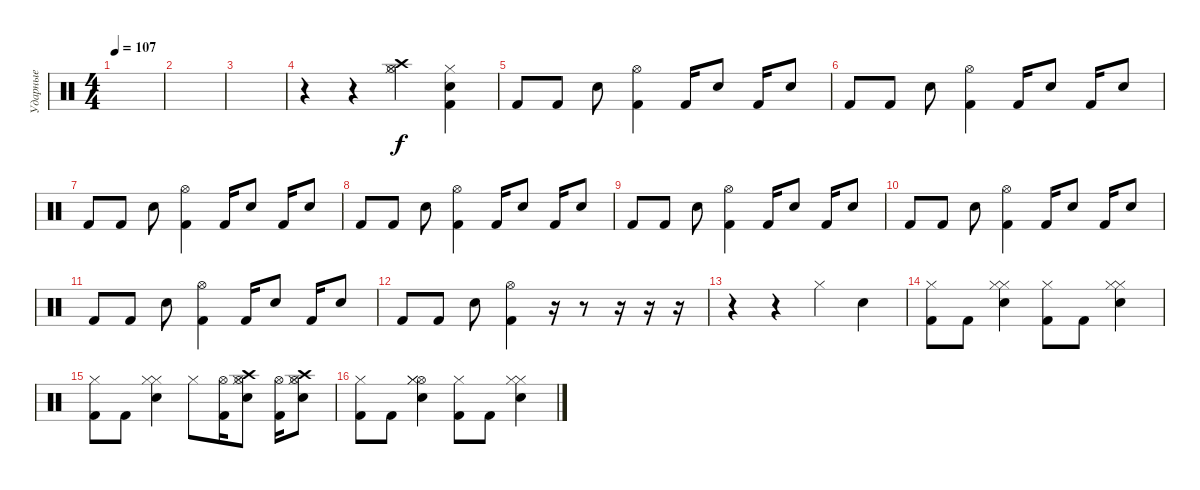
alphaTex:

\track ("Ударные" "Ударные") {instrument percussion}
\staff {score}
\articulation defaults
\ts (4 4)
\tempo 107
\clef neutral
\ks c
|
|
|
r.4 r.4 ("Hi-Hat (closed)" "Hi-Hat (open)" "Crash high (hit)").4 ("Hi-Hat (closed)" "Electric Snare (hit)" "Kick (hit) 2").4 |
"Kick (hit) 2".8 "Kick (hit) 2".8 "Electric Snare (hit)".8 ("Hi-Hat (open)" "Kick (hit) 2").4 "Kick (hit) 2".16 "Electric Snare (hit)".8 "Kick (hit) 2".16 "Electric Snare (hit)".8 |
"Kick (hit) 2".8 "Kick (hit) 2".8 "Electric Snare (hit)".8 ("Hi-Hat (open)" "Kick (hit) 2").4 "Kick (hit) 2".16 "Electric Snare (hit)".8 "Kick (hit) 2".16 "Electric Snare (hit)".8 |
"Kick (hit) 2".8 "Kick (hit) 2".8 "Electric Snare (hit)".8 ("Hi-Hat (open)" "Kick (hit) 2").4 "Kick (hit) 2".16 "Electric Snare (hit)".8 "Kick (hit) 2".16 "Electric Snare (hit)".8 |
"Kick (hit) 2".8 "Kick (hit) 2".8 "Electric Snare (hit)".8 ("Hi-Hat (open)" "Kick (hit) 2").4 "Kick (hit) 2".16 "Electric Snare (hit)".8 "Kick (hit) 2".16 "Electric Snare (hit)".8 |
"Kick (hit) 2".8 "Kick (hit) 2".8 "Electric Snare (hit)".8 ("Hi-Hat (open)" "Kick (hit) 2").4 "Kick (hit) 2".16 "Electric Snare (hit)".8 "Kick (hit) 2".16 "Electric Snare (hit)".8 |
"Kick (hit) 2".8 "Kick (hit) 2".8 "Electric Snare (hit)".8 ("Hi-Hat (open)" "Kick (hit) 2").4 "Kick (hit) 2".16 "Electric Snare (hit)".8 "Kick (hit) 2".16 "Electric Snare (hit)".8 |
"Kick (hit) 2".8 "Kick (hit) 2".8 "Electric Snare (hit)".8 ("Hi-Hat (open)" "Kick (hit) 2").4 "Kick (hit) 2".16 "Electric Snare (hit)".8 "Kick (hit) 2".16 "Electric Snare (hit)".8 |
"Kick (hit) 2".8 "Kick (hit) 2".8 "Electric Snare (hit)".8 ("Hi-Hat (open)" "Kick (hit) 2").4 r.16 r.8 r.16 r.16 r.16 |
r.4 r.4 "Hi-Hat (closed)".4 "Electric Snare (hit)".4 |
("Hi-Hat (closed)" "Kick (hit) 2").8 "Kick (hit) 2".8 ("Hi-Hat (closed)" "Hi-Hat (closed)" "Electric Snare (hit)").4 ("Hi-Hat (closed)" "Kick (hit) 2").8 "Kick (hit) 2".8 ("Hi-Hat (closed)" "Hi-Hat (closed)" "Electric Snare (hit)").4 |
("Hi-Hat (closed)" "Kick (hit) 2").8 "Kick (hit) 2".8 ("Hi-Hat (closed)" "Hi-Hat (closed)" "Electric Snare (hit)").4 "Hi-Hat (closed)".8 ("Hi-Hat (open)" "Kick (hit) 2").16 ("Hi-Hat (closed)" "Crash high (hit)" "Hi-Hat (open)" "Electric Snare (hit)").8 ("Hi-Hat (open)" "Kick (hit) 2").16 ("Hi-Hat (closed)" "Crash high (hit)" "Hi-Hat (open)" "Electric Snare (hit)").8 |
("Hi-Hat (closed)" "Kick (hit) 2").8 "Kick (hit) 2".8 ("Hi-Hat (open)" "Hi-Hat (closed)" "Hi-Hat (closed)" "Electric Snare (hit)").4 ("Hi-Hat (closed)" "Kick (hit) 2").8 "Kick (hit) 2".8 ("Hi-Hat (closed)" "Hi-Hat (closed)" "Electric Snare (hit)").4
